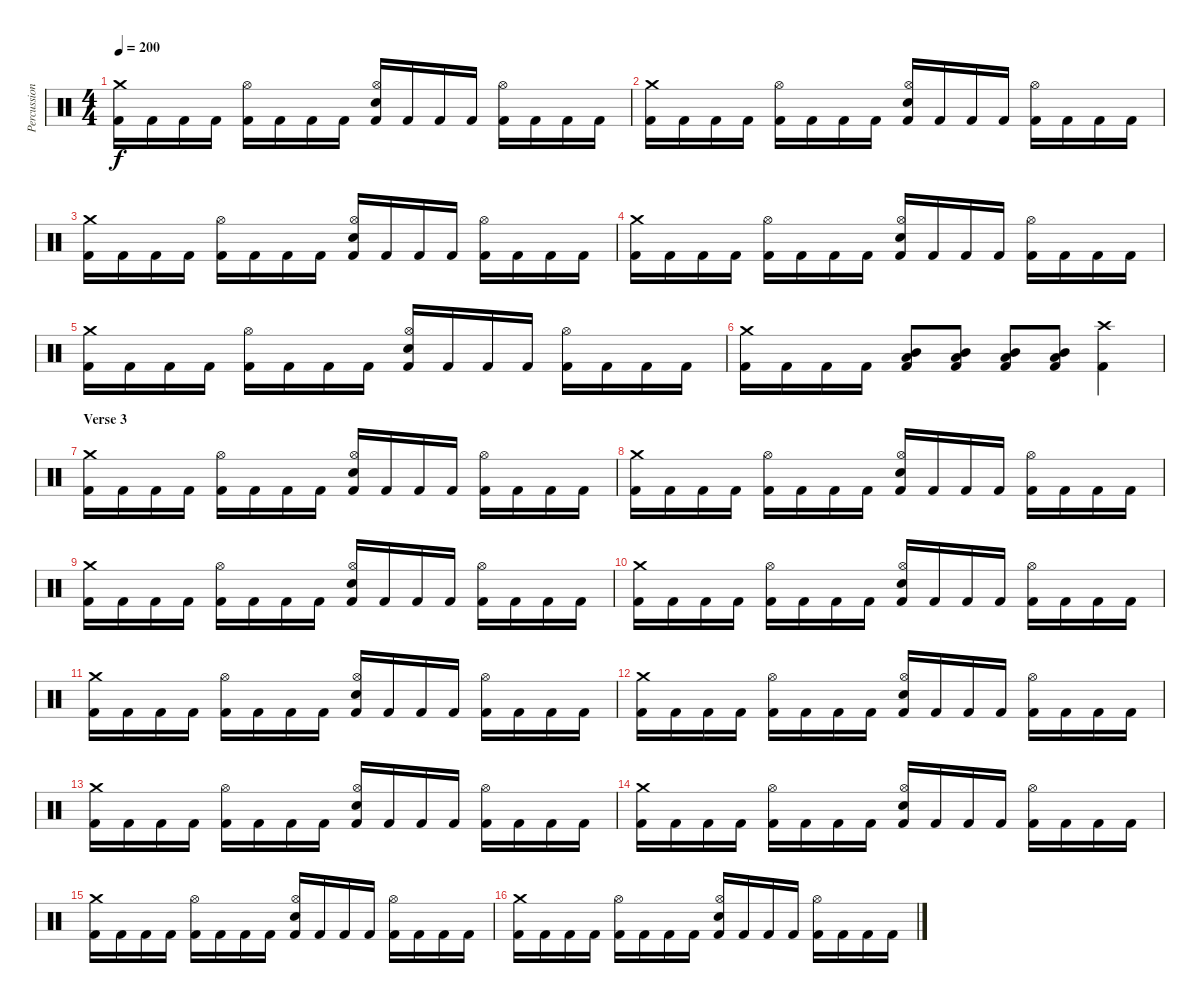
\track ("Percussions" "Percussion") {instrument percussion}
\staff {score}
\articulation defaults
\ts (4 4)
\tempo 200
\clef neutral
\ks c
("Crash medium (hit)" "Kick (hit) 2").16{dy f} "Kick (hit) 2".16 "Kick (hit) 2".16 "Kick (hit) 2".16 ("Hi-Hat (open)" "Kick (hit) 2").16 "Kick (hit) 2".16 "Kick (hit) 2".16 "Kick (hit) 2".16 ("Hi-Hat (open)" "Electric Snare (hit)" "Kick (hit) 2").16 "Kick (hit) 2".16 "Kick (hit) 2".16 "Kick (hit) 2".16 ("Hi-Hat (open)" "Kick (hit) 2").16 "Kick (hit) 2".16 "Kick (hit) 2".16 "Kick (hit) 2".16 |
("Crash medium (hit)" "Kick (hit) 2").16 "Kick (hit) 2".16 "Kick (hit) 2".16 "Kick (hit) 2".16 ("Hi-Hat (open)" "Kick (hit) 2").16 "Kick (hit) 2".16 "Kick (hit) 2".16 "Kick (hit) 2".16 ("Hi-Hat (open)" "Electric Snare (hit)" "Kick (hit) 2").16 "Kick (hit) 2".16 "Kick (hit) 2".16 "Kick (hit) 2".16 ("Hi-Hat (open)" "Kick (hit) 2").16 "Kick (hit) 2".16 "Kick (hit) 2".16 "Kick (hit) 2".16 |
("Crash medium (hit)" "Kick (hit) 2").16 "Kick (hit) 2".16 "Kick (hit) 2".16 "Kick (hit) 2".16 ("Hi-Hat (open)" "Kick (hit) 2").16 "Kick (hit) 2".16 "Kick (hit) 2".16 "Kick (hit) 2".16 ("Hi-Hat (open)" "Electric Snare (hit)" "Kick (hit) 2").16 "Kick (hit) 2".16 "Kick (hit) 2".16 "Kick (hit) 2".16 ("Hi-Hat (open)" "Kick (hit) 2").16 "Kick (hit) 2".16 "Kick (hit) 2".16 "Kick (hit) 2".16 |
("Crash medium (hit)" "Kick (hit) 2").16 "Kick (hit) 2".16 "Kick (hit) 2".16 "Kick (hit) 2".16 ("Hi-Hat (open)" "Kick (hit) 2").16 "Kick (hit) 2".16 "Kick (hit) 2".16 "Kick (hit) 2".16 ("Hi-Hat (open)" "Electric Snare (hit)" "Kick (hit) 2").16 "Kick (hit) 2".16 "Kick (hit) 2".16 "Kick (hit) 2".16 ("Hi-Hat (open)" "Kick (hit) 2").16 "Kick (hit) 2".16 "Kick (hit) 2".16 "Kick (hit) 2".16 |
("Crash medium (hit)" "Kick (hit) 2").16 "Kick (hit) 2".16 "Kick (hit) 2".16 "Kick (hit) 2".16 ("Hi-Hat (open)" "Kick (hit) 2").16 "Kick (hit) 2".16 "Kick (hit) 2".16 "Kick (hit) 2".16 ("Hi-Hat (open)" "Electric Snare (hit)" "Kick (hit) 2").16 "Kick (hit) 2".16 "Kick (hit) 2".16 "Kick (hit) 2".16 ("Hi-Hat (open)" "Kick (hit) 2").16 "Kick (hit) 2".16 "Kick (hit) 2".16 "Kick (hit) 2".16 |
("Crash medium (hit)" "Kick (hit) 2").16 "Kick (hit) 2".16 "Kick (hit) 2".16 "Kick (hit) 2".16 ("Mid Tom (hit)" "Low Tom (hit)" "Kick (hit) 2").8 ("Mid Tom (hit)" "Low Tom (hit)" "Kick (hit) 2").8 ("Mid Tom (hit)" "Low Tom (hit)" "Kick (hit) 2").8 ("Mid Tom (hit)" "Low Tom (hit)" "Kick (hit) 2").8 ("Crash high (hit)" "Kick (hit) 2").4 |
\section ("" "Verse 3")
("Crash medium (hit)" "Kick (hit) 2").16 "Kick (hit) 2".16 "Kick (hit) 2".16 "Kick (hit) 2".16 ("Hi-Hat (open)" "Kick (hit) 2").16 "Kick (hit) 2".16 "Kick (hit) 2".16 "Kick (hit) 2".16 ("Hi-Hat (open)" "Electric Snare (hit)" "Kick (hit) 2").16 "Kick (hit) 2".16 "Kick (hit) 2".16 "Kick (hit) 2".16 ("Hi-Hat (open)" "Kick (hit) 2").16 "Kick (hit) 2".16 "Kick (hit) 2".16 "Kick (hit) 2".16 |
("Crash medium (hit)" "Kick (hit) 2").16 "Kick (hit) 2".16 "Kick (hit) 2".16 "Kick (hit) 2".16 ("Hi-Hat (open)" "Kick (hit) 2").16 "Kick (hit) 2".16 "Kick (hit) 2".16 "Kick (hit) 2".16 ("Hi-Hat (open)" "Electric Snare (hit)" "Kick (hit) 2").16 "Kick (hit) 2".16 "Kick (hit) 2".16 "Kick (hit) 2".16 ("Hi-Hat (open)" "Kick (hit) 2").16 "Kick (hit) 2".16 "Kick (hit) 2".16 "Kick (hit) 2".16 |
("Crash medium (hit)" "Kick (hit) 2").16 "Kick (hit) 2".16 "Kick (hit) 2".16 "Kick (hit) 2".16 ("Hi-Hat (open)" "Kick (hit) 2").16 "Kick (hit) 2".16 "Kick (hit) 2".16 "Kick (hit) 2".16 ("Hi-Hat (open)" "Electric Snare (hit)" "Kick (hit) 2").16 "Kick (hit) 2".16 "Kick (hit) 2".16 "Kick (hit) 2".16 ("Hi-Hat (open)" "Kick (hit) 2").16 "Kick (hit) 2".16 "Kick (hit) 2".16 "Kick (hit) 2".16 |
("Crash medium (hit)" "Kick (hit) 2").16 "Kick (hit) 2".16 "Kick (hit) 2".16 "Kick (hit) 2".16 ("Hi-Hat (open)" "Kick (hit) 2").16 "Kick (hit) 2".16 "Kick (hit) 2".16 "Kick (hit) 2".16 ("Hi-Hat (open)" "Electric Snare (hit)" "Kick (hit) 2").16 "Kick (hit) 2".16 "Kick (hit) 2".16 "Kick (hit) 2".16 ("Hi-Hat (open)" "Kick (hit) 2").16 "Kick (hit) 2".16 "Kick (hit) 2".16 "Kick (hit) 2".16 |
("Crash medium (hit)" "Kick (hit) 2").16 "Kick (hit) 2".16 "Kick (hit) 2".16 "Kick (hit) 2".16 ("Hi-Hat (open)" "Kick (hit) 2").16 "Kick (hit) 2".16 "Kick (hit) 2".16 "Kick (hit) 2".16 ("Hi-Hat (open)" "Electric Snare (hit)" "Kick (hit) 2").16 "Kick (hit) 2".16 "Kick (hit) 2".16 "Kick (hit) 2".16 ("Hi-Hat (open)" "Kick (hit) 2").16 "Kick (hit) 2".16 "Kick (hit) 2".16 "Kick (hit) 2".16 |
("Crash medium (hit)" "Kick (hit) 2").16 "Kick (hit) 2".16 "Kick (hit) 2".16 "Kick (hit) 2".16 ("Hi-Hat (open)" "Kick (hit) 2").16 "Kick (hit) 2".16 "Kick (hit) 2".16 "Kick (hit) 2".16 ("Hi-Hat (open)" "Electric Snare (hit)" "Kick (hit) 2").16 "Kick (hit) 2".16 "Kick (hit) 2".16 "Kick (hit) 2".16 ("Hi-Hat (open)" "Kick (hit) 2").16 "Kick (hit) 2".16 "Kick (hit) 2".16 "Kick (hit) 2".16 |
("Crash medium (hit)" "Kick (hit) 2").16 "Kick (hit) 2".16 "Kick (hit) 2".16 "Kick (hit) 2".16 ("Hi-Hat (open)" "Kick (hit) 2").16 "Kick (hit) 2".16 "Kick (hit) 2".16 "Kick (hit) 2".16 ("Hi-Hat (open)" "Electric Snare (hit)" "Kick (hit) 2").16 "Kick (hit) 2".16 "Kick (hit) 2".16 "Kick (hit) 2".16 ("Hi-Hat (open)" "Kick (hit) 2").16 "Kick (hit) 2".16 "Kick (hit) 2".16 "Kick (hit) 2".16 |
("Crash medium (hit)" "Kick (hit) 2").16 "Kick (hit) 2".16 "Kick (hit) 2".16 "Kick (hit) 2".16 ("Hi-Hat (open)" "Kick (hit) 2").16 "Kick (hit) 2".16 "Kick (hit) 2".16 "Kick (hit) 2".16 ("Hi-Hat (open)" "Electric Snare (hit)" "Kick (hit) 2").16 "Kick (hit) 2".16 "Kick (hit) 2".16 "Kick (hit) 2".16 ("Hi-Hat (open)" "Kick (hit) 2").16 "Kick (hit) 2".16 "Kick (hit) 2".16 "Kick (hit) 2".16 |
("Crash medium (hit)" "Kick (hit) 2").16 "Kick (hit) 2".16 "Kick (hit) 2".16 "Kick (hit) 2".16 ("Hi-Hat (open)" "Kick (hit) 2").16 "Kick (hit) 2".16 "Kick (hit) 2".16 "Kick (hit) 2".16 ("Hi-Hat (open)" "Electric Snare (hit)" "Kick (hit) 2").16 "Kick (hit) 2".16 "Kick (hit) 2".16 "Kick (hit) 2".16 ("Hi-Hat (open)" "Kick (hit) 2").16 "Kick (hit) 2".16 "Kick (hit) 2".16 "Kick (hit) 2".16 |
("Crash medium (hit)" "Kick (hit) 2").16 "Kick (hit) 2".16 "Kick (hit) 2".16 "Kick (hit) 2".16 ("Hi-Hat (open)" "Kick (hit) 2").16 "Kick (hit) 2".16 "Kick (hit) 2".16 "Kick (hit) 2".16 ("Hi-Hat (open)" "Electric Snare (hit)" "Kick (hit) 2").16 "Kick (hit) 2".16 "Kick (hit) 2".16 "Kick (hit) 2".16 ("Hi-Hat (open)" "Kick (hit) 2").16 "Kick (hit) 2".16 "Kick (hit) 2".16 "Kick (hit) 2".16
